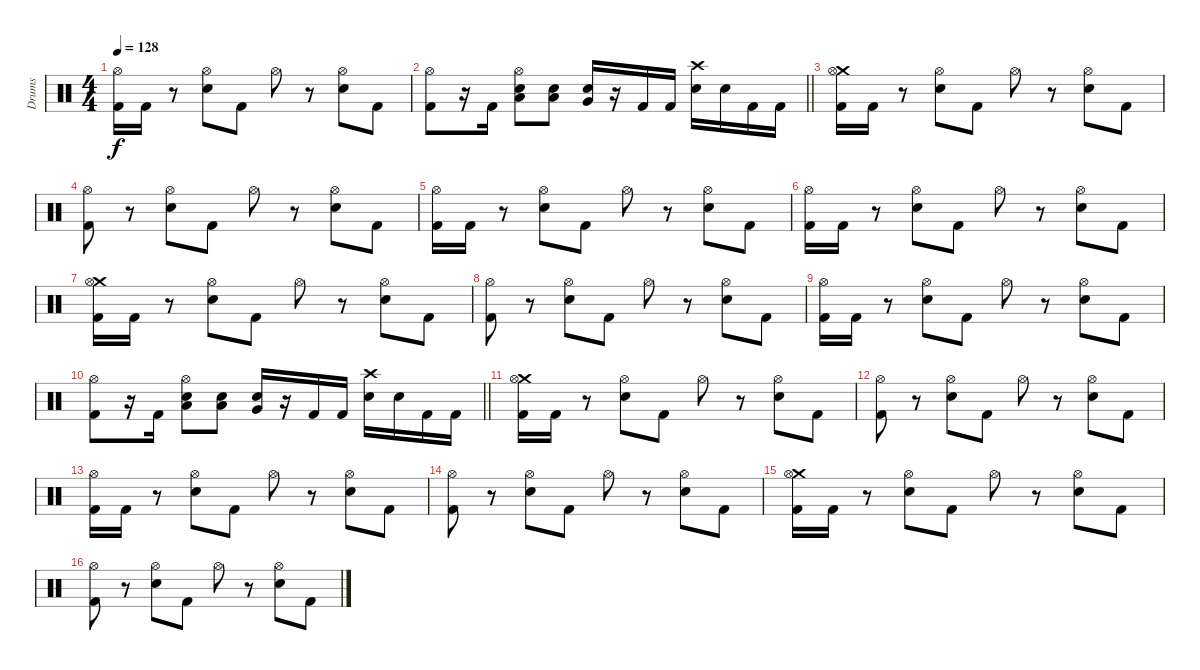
\track ("Drums" "Drums") {instrument percussion}
\staff {score}
\articulation defaults
\ts (4 4)
\tempo 128
\clef neutral
\ks c
("Hi-Hat (open)" "Kick (hit) 2").16{dy f} "Kick (hit) 2".16 r.8 ("Hi-Hat (open)" "Electric Snare (hit)").8 "Kick (hit) 2".8 "Hi-Hat (open)".8 r.8 ("Hi-Hat (open)" "Electric Snare (hit)").8 "Kick (hit) 2".8 |
\barLineRight lightlight
("Hi-Hat (open)" "Kick (hit) 2").8 r.16 "Kick (hit) 2".16 ("Hi-Hat (open)" "Electric Snare (hit)" "Low Floor Tom (hit)").8 ("Electric Snare (hit)" "Low Tom (hit)").8 ("Electric Snare (hit)" "Very Low Tom (hit)").16 r.16 "Kick (hit) 2".16 "Kick (hit) 2".16 ("Crash high (hit)" "Electric Snare (hit)").16 "Electric Snare (hit)".16 "Kick (hit) 2".16 "Kick (hit) 2".16 |
\section ("" "")
("Crash medium (hit)" "Hi-Hat (open)" "Kick (hit) 2").16 "Kick (hit) 2".16 r.8 ("Hi-Hat (open)" "Electric Snare (hit)").8 "Kick (hit) 2".8 "Hi-Hat (open)".8 r.8 ("Hi-Hat (open)" "Electric Snare (hit)").8 "Kick (hit) 2".8 |
("Hi-Hat (open)" "Kick (hit) 2").8 r.8 ("Hi-Hat (open)" "Electric Snare (hit)").8 "Kick (hit) 2".8 "Hi-Hat (open)".8 r.8 ("Hi-Hat (open)" "Electric Snare (hit)").8 "Kick (hit) 2".8 |
("Hi-Hat (open)" "Kick (hit) 2").16 "Kick (hit) 2".16 r.8 ("Hi-Hat (open)" "Electric Snare (hit)").8 "Kick (hit) 2".8 "Hi-Hat (open)".8 r.8 ("Hi-Hat (open)" "Electric Snare (hit)").8 "Kick (hit) 2".8 |
("Hi-Hat (open)" "Kick (hit) 2").16 "Kick (hit) 2".16 r.8 ("Hi-Hat (open)" "Electric Snare (hit)").8 "Kick (hit) 2".8 "Hi-Hat (open)".8 r.8 ("Hi-Hat (open)" "Electric Snare (hit)").8 "Kick (hit) 2".8 |
("Crash medium (hit)" "Hi-Hat (open)" "Kick (hit) 2").16 "Kick (hit) 2".16 r.8 ("Hi-Hat (open)" "Electric Snare (hit)").8 "Kick (hit) 2".8 "Hi-Hat (open)".8 r.8 ("Hi-Hat (open)" "Electric Snare (hit)").8 "Kick (hit) 2".8 |
("Hi-Hat (open)" "Kick (hit) 2").8 r.8 ("Hi-Hat (open)" "Electric Snare (hit)").8 "Kick (hit) 2".8 "Hi-Hat (open)".8 r.8 ("Hi-Hat (open)" "Electric Snare (hit)").8 "Kick (hit) 2".8 |
("Hi-Hat (open)" "Kick (hit) 2").16 "Kick (hit) 2".16 r.8 ("Hi-Hat (open)" "Electric Snare (hit)").8 "Kick (hit) 2".8 "Hi-Hat (open)".8 r.8 ("Hi-Hat (open)" "Electric Snare (hit)").8 "Kick (hit) 2".8 |
\barLineRight lightlight
("Hi-Hat (open)" "Kick (hit) 2").8 r.16 "Kick (hit) 2".16 ("Hi-Hat (open)" "Electric Snare (hit)" "Low Floor Tom (hit)").8 ("Electric Snare (hit)" "Low Tom (hit)").8 ("Electric Snare (hit)" "Very Low Tom (hit)").16 r.16 "Kick (hit) 2".16 "Kick (hit) 2".16 ("Crash high (hit)" "Electric Snare (hit)").16 "Electric Snare (hit)".16 "Kick (hit) 2".16 "Kick (hit) 2".16 |
\section ("" "")
("Crash medium (hit)" "Hi-Hat (open)" "Kick (hit) 2").16 "Kick (hit) 2".16 r.8 ("Hi-Hat (open)" "Electric Snare (hit)").8 "Kick (hit) 2".8 "Hi-Hat (open)".8 r.8 ("Hi-Hat (open)" "Electric Snare (hit)").8 "Kick (hit) 2".8 |
("Hi-Hat (open)" "Kick (hit) 2").8 r.8 ("Hi-Hat (open)" "Electric Snare (hit)").8 "Kick (hit) 2".8 "Hi-Hat (open)".8 r.8 ("Hi-Hat (open)" "Electric Snare (hit)").8 "Kick (hit) 2".8 |
("Hi-Hat (open)" "Kick (hit) 2").16 "Kick (hit) 2".16 r.8 ("Hi-Hat (open)" "Electric Snare (hit)").8 "Kick (hit) 2".8 "Hi-Hat (open)".8 r.8 ("Hi-Hat (open)" "Electric Snare (hit)").8 "Kick (hit) 2".8 |
("Hi-Hat (open)" "Kick (hit) 2").8 r.8 ("Hi-Hat (open)" "Electric Snare (hit)").8 "Kick (hit) 2".8 "Hi-Hat (open)".8 r.8 ("Hi-Hat (open)" "Electric Snare (hit)").8 "Kick (hit) 2".8 |
("Crash medium (hit)" "Hi-Hat (open)" "Kick (hit) 2").16 "Kick (hit) 2".16 r.8 ("Hi-Hat (open)" "Electric Snare (hit)").8 "Kick (hit) 2".8 "Hi-Hat (open)".8 r.8 ("Hi-Hat (open)" "Electric Snare (hit)").8 "Kick (hit) 2".8 |
("Hi-Hat (open)" "Kick (hit) 2").8 r.8 ("Hi-Hat (open)" "Electric Snare (hit)").8 "Kick (hit) 2".8 "Hi-Hat (open)".8 r.8 ("Hi-Hat (open)" "Electric Snare (hit)").8 "Kick (hit) 2".8
